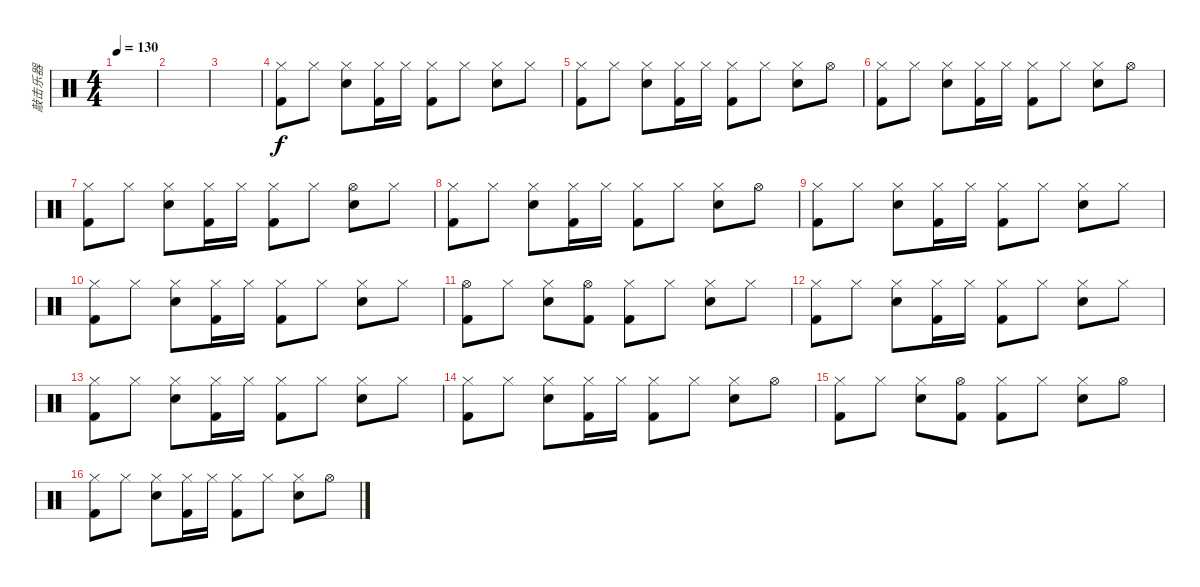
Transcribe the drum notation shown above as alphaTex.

\track ("敲击乐器" "敲击乐器") {instrument percussion}
\staff {score}
\articulation defaults
\ts (4 4)
\tempo 130
\clef neutral
\ks c
|
|
|
("Hi-Hat (closed)" "Kick (hit) 2").8 "Hi-Hat (closed)".8 ("Hi-Hat (closed)" "Snare (hit) 2").8 ("Hi-Hat (closed)" "Kick (hit) 2").16 "Hi-Hat (closed)".16 ("Hi-Hat (closed)" "Kick (hit) 2").8 "Hi-Hat (closed)".8 ("Hi-Hat (closed)" "Snare (hit) 2").8 "Hi-Hat (closed)".8 |
("Hi-Hat (closed)" "Kick (hit) 2").8 "Hi-Hat (closed)".8 ("Hi-Hat (closed)" "Snare (hit) 2").8 ("Hi-Hat (closed)" "Kick (hit) 2").16 "Hi-Hat (closed)".16 ("Hi-Hat (closed)" "Kick (hit) 2").8 "Hi-Hat (closed)".8 ("Hi-Hat (closed)" "Snare (hit) 2").8 "Hi-Hat (open)".8 |
("Hi-Hat (closed)" "Kick (hit) 2").8 "Hi-Hat (closed)".8 ("Hi-Hat (closed)" "Snare (hit) 2").8 ("Hi-Hat (closed)" "Kick (hit) 2").16 "Hi-Hat (closed)".16 ("Hi-Hat (closed)" "Kick (hit) 2").8 "Hi-Hat (closed)".8 ("Hi-Hat (closed)" "Snare (hit) 2").8 "Hi-Hat (open)".8 |
("Hi-Hat (closed)" "Kick (hit) 2").8 "Hi-Hat (closed)".8 ("Hi-Hat (closed)" "Snare (hit) 2").8 ("Hi-Hat (closed)" "Kick (hit) 2").16 "Hi-Hat (closed)".16 ("Hi-Hat (closed)" "Kick (hit) 2").8 "Hi-Hat (closed)".8 ("Hi-Hat (open)" "Snare (hit) 2").8 "Hi-Hat (closed)".8 |
("Hi-Hat (closed)" "Kick (hit) 2").8 "Hi-Hat (closed)".8 ("Hi-Hat (closed)" "Snare (hit) 2").8 ("Hi-Hat (closed)" "Kick (hit) 2").16 "Hi-Hat (closed)".16 ("Hi-Hat (closed)" "Kick (hit) 2").8 "Hi-Hat (closed)".8 ("Hi-Hat (closed)" "Snare (hit) 2").8 "Hi-Hat (open)".8 |
("Hi-Hat (closed)" "Kick (hit) 2").8 "Hi-Hat (closed)".8 ("Hi-Hat (closed)" "Snare (hit) 2").8 ("Hi-Hat (closed)" "Kick (hit) 2").16 "Hi-Hat (closed)".16 ("Hi-Hat (closed)" "Kick (hit) 2").8 "Hi-Hat (closed)".8 ("Hi-Hat (closed)" "Snare (hit) 2").8 "Hi-Hat (closed)".8 |
("Hi-Hat (closed)" "Kick (hit) 2").8 "Hi-Hat (closed)".8 ("Hi-Hat (closed)" "Snare (hit) 2").8 ("Hi-Hat (closed)" "Kick (hit) 2").16 "Hi-Hat (closed)".16 ("Hi-Hat (closed)" "Kick (hit) 2").8 "Hi-Hat (closed)".8 ("Hi-Hat (closed)" "Snare (hit) 2").8 "Hi-Hat (closed)".8 |
("Hi-Hat (open)" "Kick (hit) 2").8 "Hi-Hat (closed)".8 ("Hi-Hat (closed)" "Snare (hit) 2").8 ("Hi-Hat (open)" "Kick (hit) 2").8 ("Hi-Hat (closed)" "Kick (hit) 2").8 "Hi-Hat (closed)".8 ("Hi-Hat (closed)" "Snare (hit) 2").8 "Hi-Hat (closed)".8 |
("Hi-Hat (closed)" "Kick (hit) 2").8 "Hi-Hat (closed)".8 ("Hi-Hat (closed)" "Snare (hit) 2").8 ("Hi-Hat (closed)" "Kick (hit) 2").16 "Hi-Hat (closed)".16 ("Hi-Hat (closed)" "Kick (hit) 2").8 "Hi-Hat (closed)".8 ("Hi-Hat (closed)" "Snare (hit) 2").8 "Hi-Hat (closed)".8 |
("Hi-Hat (closed)" "Kick (hit) 2").8 "Hi-Hat (closed)".8 ("Hi-Hat (closed)" "Snare (hit) 2").8 ("Hi-Hat (closed)" "Kick (hit) 2").16 "Hi-Hat (closed)".16 ("Hi-Hat (closed)" "Kick (hit) 2").8 "Hi-Hat (closed)".8 ("Hi-Hat (closed)" "Snare (hit) 2").8 "Hi-Hat (closed)".8 |
("Hi-Hat (closed)" "Kick (hit) 2").8 "Hi-Hat (closed)".8 ("Hi-Hat (closed)" "Snare (hit) 2").8 ("Hi-Hat (closed)" "Kick (hit) 2").16 "Hi-Hat (closed)".16 ("Hi-Hat (closed)" "Kick (hit) 2").8 "Hi-Hat (closed)".8 ("Hi-Hat (closed)" "Snare (hit) 2").8 "Hi-Hat (open)".8 |
("Hi-Hat (closed)" "Kick (hit) 2").8 "Hi-Hat (closed)".8 ("Hi-Hat (closed)" "Snare (hit) 2").8 ("Hi-Hat (open)" "Kick (hit) 2").8 ("Hi-Hat (closed)" "Kick (hit) 2").8 "Hi-Hat (closed)".8 ("Hi-Hat (closed)" "Snare (hit) 2").8 "Hi-Hat (open)".8 |
("Hi-Hat (closed)" "Kick (hit) 2").8 "Hi-Hat (closed)".8 ("Hi-Hat (closed)" "Snare (hit) 2").8 ("Hi-Hat (closed)" "Kick (hit) 2").16 "Hi-Hat (closed)".16 ("Hi-Hat (closed)" "Kick (hit) 2").8 "Hi-Hat (closed)".8 ("Hi-Hat (closed)" "Snare (hit) 2").8 "Hi-Hat (open)".8
